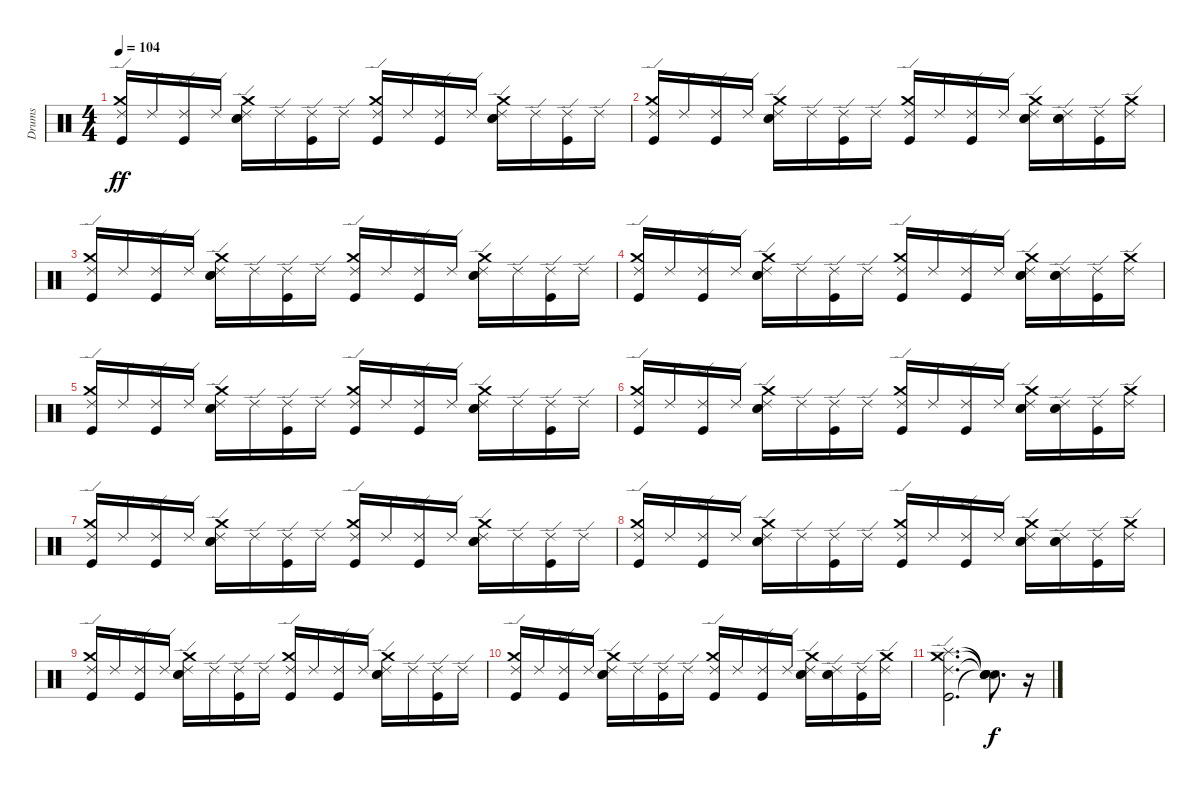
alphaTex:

\track ("Drums" "Drums") {instrument percussion}
\staff {score}
\articulation defaults
\ts (4 4)
\tempo 104
\clef neutral
\ks c
("Kick (hit)" "Crash medium (hit)" "Ride (edge) 2").16{dy ff} "Ride (edge) 2".16 ("Kick (hit)" "Ride (edge) 2").16 "Ride (edge) 2".16 ("Snare (hit) 2" "Electric Snare (hit)" "Crash medium (hit)" "Ride (edge) 2").16 "Ride (edge) 2".16 ("Kick (hit)" "Ride (edge) 2").16 "Ride (edge) 2".16 ("Kick (hit)" "Crash medium (hit)" "Ride (edge) 2").16 "Ride (edge) 2".16 ("Kick (hit)" "Ride (edge) 2").16 "Ride (edge) 2".16 ("Snare (hit) 2" "Electric Snare (hit)" "Crash medium (hit)" "Ride (edge) 2").16 "Ride (edge) 2".16 ("Kick (hit)" "Ride (edge) 2").16 "Ride (edge) 2".16 |
("Kick (hit)" "Crash medium (hit)" "Ride (edge) 2").16 "Ride (edge) 2".16 ("Kick (hit)" "Ride (edge) 2").16 "Ride (edge) 2".16 ("Snare (hit) 2" "Electric Snare (hit)" "Crash medium (hit)" "Ride (edge) 2").16 "Ride (edge) 2".16 ("Kick (hit)" "Ride (edge) 2").16 "Ride (edge) 2".16 ("Kick (hit)" "Crash medium (hit)" "Ride (edge) 2").16 "Ride (edge) 2".16 ("Kick (hit)" "Ride (edge) 2").16 "Ride (edge) 2".16 ("Snare (hit) 2" "Electric Snare (hit)" "Crash medium (hit)" "Ride (edge) 2").16 ("Snare (hit) 2" "Electric Snare (hit)" "Ride (edge) 2").16 ("Kick (hit)" "Ride (edge) 2").16 ("Crash medium (hit)" "Ride (edge) 2").16 |
("Kick (hit)" "Crash medium (hit)" "Ride (edge) 2").16 "Ride (edge) 2".16 ("Kick (hit)" "Ride (edge) 2").16 "Ride (edge) 2".16 ("Snare (hit) 2" "Electric Snare (hit)" "Crash medium (hit)" "Ride (edge) 2").16 "Ride (edge) 2".16 ("Kick (hit)" "Ride (edge) 2").16 "Ride (edge) 2".16 ("Kick (hit)" "Crash medium (hit)" "Ride (edge) 2").16 "Ride (edge) 2".16 ("Kick (hit)" "Ride (edge) 2").16 "Ride (edge) 2".16 ("Snare (hit) 2" "Electric Snare (hit)" "Crash medium (hit)" "Ride (edge) 2").16 "Ride (edge) 2".16 ("Kick (hit)" "Ride (edge) 2").16 "Ride (edge) 2".16 |
("Kick (hit)" "Crash medium (hit)" "Ride (edge) 2").16 "Ride (edge) 2".16 ("Kick (hit)" "Ride (edge) 2").16 "Ride (edge) 2".16 ("Snare (hit) 2" "Electric Snare (hit)" "Crash medium (hit)" "Ride (edge) 2").16 "Ride (edge) 2".16 ("Kick (hit)" "Ride (edge) 2").16 "Ride (edge) 2".16 ("Kick (hit)" "Crash medium (hit)" "Ride (edge) 2").16 "Ride (edge) 2".16 ("Kick (hit)" "Ride (edge) 2").16 "Ride (edge) 2".16 ("Snare (hit) 2" "Electric Snare (hit)" "Crash medium (hit)" "Ride (edge) 2").16 ("Snare (hit) 2" "Electric Snare (hit)" "Ride (edge) 2").16 ("Kick (hit)" "Ride (edge) 2").16 ("Crash medium (hit)" "Ride (edge) 2").16 |
("Kick (hit)" "Crash medium (hit)" "Ride (edge) 2").16 "Ride (edge) 2".16 ("Kick (hit)" "Ride (edge) 2").16 "Ride (edge) 2".16 ("Snare (hit) 2" "Electric Snare (hit)" "Crash medium (hit)" "Ride (edge) 2").16 "Ride (edge) 2".16 ("Kick (hit)" "Ride (edge) 2").16 "Ride (edge) 2".16 ("Kick (hit)" "Crash medium (hit)" "Ride (edge) 2").16 "Ride (edge) 2".16 ("Kick (hit)" "Ride (edge) 2").16 "Ride (edge) 2".16 ("Snare (hit) 2" "Electric Snare (hit)" "Crash medium (hit)" "Ride (edge) 2").16 "Ride (edge) 2".16 ("Kick (hit)" "Ride (edge) 2").16 "Ride (edge) 2".16 |
("Kick (hit)" "Crash medium (hit)" "Ride (edge) 2").16 "Ride (edge) 2".16 ("Kick (hit)" "Ride (edge) 2").16 "Ride (edge) 2".16 ("Snare (hit) 2" "Electric Snare (hit)" "Crash medium (hit)" "Ride (edge) 2").16 "Ride (edge) 2".16 ("Kick (hit)" "Ride (edge) 2").16 "Ride (edge) 2".16 ("Kick (hit)" "Crash medium (hit)" "Ride (edge) 2").16 "Ride (edge) 2".16 ("Kick (hit)" "Ride (edge) 2").16 "Ride (edge) 2".16 ("Snare (hit) 2" "Electric Snare (hit)" "Crash medium (hit)" "Ride (edge) 2").16 ("Snare (hit) 2" "Electric Snare (hit)" "Ride (edge) 2").16 ("Kick (hit)" "Ride (edge) 2").16 ("Crash medium (hit)" "Ride (edge) 2").16 |
("Kick (hit)" "Crash medium (hit)" "Ride (edge) 2").16 "Ride (edge) 2".16 ("Kick (hit)" "Ride (edge) 2").16 "Ride (edge) 2".16 ("Snare (hit) 2" "Electric Snare (hit)" "Crash medium (hit)" "Ride (edge) 2").16 "Ride (edge) 2".16 ("Kick (hit)" "Ride (edge) 2").16 "Ride (edge) 2".16 ("Kick (hit)" "Crash medium (hit)" "Ride (edge) 2").16 "Ride (edge) 2".16 ("Kick (hit)" "Ride (edge) 2").16 "Ride (edge) 2".16 ("Snare (hit) 2" "Electric Snare (hit)" "Crash medium (hit)" "Ride (edge) 2").16 "Ride (edge) 2".16 ("Kick (hit)" "Ride (edge) 2").16 "Ride (edge) 2".16 |
("Kick (hit)" "Crash medium (hit)" "Ride (edge) 2").16 "Ride (edge) 2".16 ("Kick (hit)" "Ride (edge) 2").16 "Ride (edge) 2".16 ("Snare (hit) 2" "Electric Snare (hit)" "Crash medium (hit)" "Ride (edge) 2").16 "Ride (edge) 2".16 ("Kick (hit)" "Ride (edge) 2").16 "Ride (edge) 2".16 ("Kick (hit)" "Crash medium (hit)" "Ride (edge) 2").16 "Ride (edge) 2".16 ("Kick (hit)" "Ride (edge) 2").16 "Ride (edge) 2".16 ("Snare (hit) 2" "Electric Snare (hit)" "Crash medium (hit)" "Ride (edge) 2").16 ("Snare (hit) 2" "Electric Snare (hit)" "Ride (edge) 2").16 ("Kick (hit)" "Ride (edge) 2").16 ("Crash medium (hit)" "Ride (edge) 2").16 |
("Kick (hit)" "Crash medium (hit)" "Ride (edge) 2").16 "Ride (edge) 2".16 ("Kick (hit)" "Ride (edge) 2").16 "Ride (edge) 2".16 ("Snare (hit) 2" "Electric Snare (hit)" "Crash medium (hit)" "Ride (edge) 2").16 "Ride (edge) 2".16 ("Kick (hit)" "Ride (edge) 2").16 "Ride (edge) 2".16 ("Kick (hit)" "Crash medium (hit)" "Ride (edge) 2").16 "Ride (edge) 2".16 ("Kick (hit)" "Ride (edge) 2").16 "Ride (edge) 2".16 ("Snare (hit) 2" "Electric Snare (hit)" "Crash medium (hit)" "Ride (edge) 2").16 "Ride (edge) 2".16 ("Kick (hit)" "Ride (edge) 2").16 "Ride (edge) 2".16 |
("Kick (hit)" "Crash medium (hit)" "Ride (edge) 2").16 "Ride (edge) 2".16 ("Kick (hit)" "Ride (edge) 2").16 "Ride (edge) 2".16 ("Snare (hit) 2" "Electric Snare (hit)" "Crash medium (hit)" "Ride (edge) 2").16 "Ride (edge) 2".16 ("Kick (hit)" "Ride (edge) 2").16 "Ride (edge) 2".16 ("Kick (hit)" "Crash medium (hit)" "Ride (edge) 2").16 "Ride (edge) 2".16 ("Kick (hit)" "Ride (edge) 2").16 "Ride (edge) 2".16 ("Snare (hit) 2" "Electric Snare (hit)" "Crash medium (hit)" "Ride (edge) 2").16 ("Snare (hit) 2" "Electric Snare (hit)" "Ride (edge) 2").16 ("Kick (hit)" "Ride (edge) 2").16 ("Crash medium (hit)" "Ride (edge) 2").16 |
("Kick (hit)" "Splash (hit)" "Crash medium (hit)" "Ride (edge) 2").2{d} ("Snare (hit)"{t} "Snare (hit)"{t} "Snare (hit)"{t} "Snare (hit)"{t}).8{d dy f} r.16
